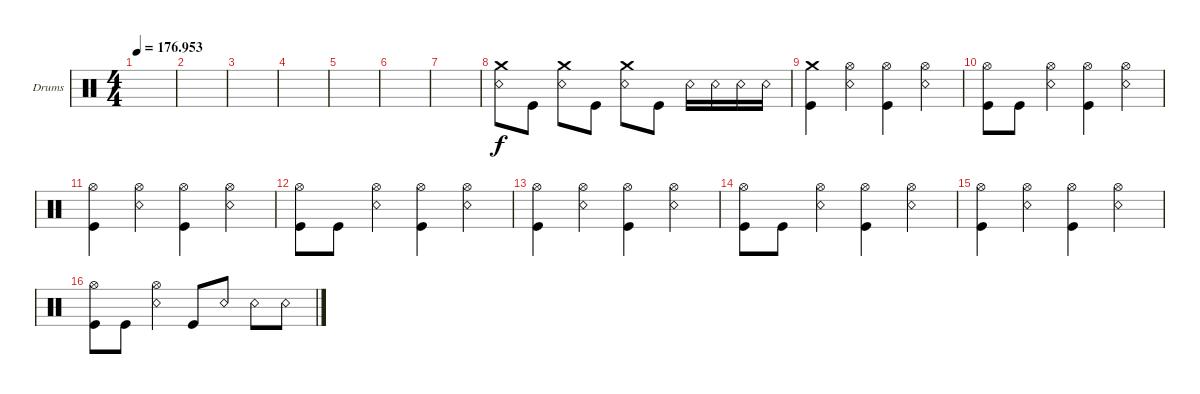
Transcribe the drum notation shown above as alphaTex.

\defaultSystemsLayout 4
\bracketExtendMode groupsimilarinstruments
\firstSystemTrackNameOrientation horizontal
\otherSystemsTrackNameOrientation horizontal
\track ("Christopher" "Drums") {instrument percussion}
\staff {score}
\articulation defaults
\ts (4 4)
\tempo
176.953
\accidentals auto
\clef neutral
\ottava regular
\simile none
\scale
0.474178
\ks c
|
\scale
0.262911 |
\scale
0.262911 |
\scale
0.333333 |
\scale
0.333333 |
\scale
0.333333 |
\scale
0.333333 |
\scale
0.333333 ("Snare (rim shot)" "Crash medium (hit)").8 "Kick (hit)".8 ("Snare (rim shot)" "Crash medium (hit)").8 "Kick (hit)".8 ("Snare (rim shot)" "Crash medium (hit)").8 "Kick (hit)".8 "Snare (rim shot)".16 "Snare (rim shot)".16 "Snare (rim shot)".16 "Snare (rim shot)".16 |
\scale
0.333333 ("Crash medium (hit)" "Kick (hit)").4 ("Snare (rim shot)" "Hi-Hat (open)").4 ("Hi-Hat (open)" "Kick (hit)").4 ("Snare (rim shot)" "Hi-Hat (open)").4 |
\scale
0.333333 ("Kick (hit)" "Hi-Hat (open)").8 "Kick (hit)".8 ("Snare (rim shot)" "Hi-Hat (open)").4 ("Kick (hit)" "Hi-Hat (open)").4 ("Snare (rim shot)" "Hi-Hat (open)").4 |
\scale
0.333333 ("Kick (hit)" "Hi-Hat (open)").4 ("Snare (rim shot)" "Hi-Hat (open)").4 ("Hi-Hat (open)" "Kick (hit)").4 ("Snare (rim shot)" "Hi-Hat (open)").4 |
\scale
0.333333 ("Kick (hit)" "Hi-Hat (open)").8 "Kick (hit)".8 ("Snare (rim shot)" "Hi-Hat (open)").4 ("Kick (hit)" "Hi-Hat (open)").4 ("Snare (rim shot)" "Hi-Hat (open)").4 |
\scale
0.333333 ("Kick (hit)" "Hi-Hat (open)").4 ("Snare (rim shot)" "Hi-Hat (open)").4 ("Hi-Hat (open)" "Kick (hit)").4 ("Snare (rim shot)" "Hi-Hat (open)").4 |
\scale
0.333333 ("Kick (hit)" "Hi-Hat (open)").8 "Kick (hit)".8 ("Snare (rim shot)" "Hi-Hat (open)").4 ("Kick (hit)" "Hi-Hat (open)").4 ("Snare (rim shot)" "Hi-Hat (open)").4 |
\scale
0.333333 ("Kick (hit)" "Hi-Hat (open)").4 ("Snare (rim shot)" "Hi-Hat (open)").4 ("Hi-Hat (open)" "Kick (hit)").4 ("Snare (rim shot)" "Hi-Hat (open)").4 |
("Kick (hit)" "Hi-Hat (open)").8 "Kick (hit)".8 ("Snare (rim shot)" "Hi-Hat (open)").4 "Kick (hit)".8 "Snare (rim shot)".8 "Snare (rim shot)".8 "Snare (rim shot)".8
